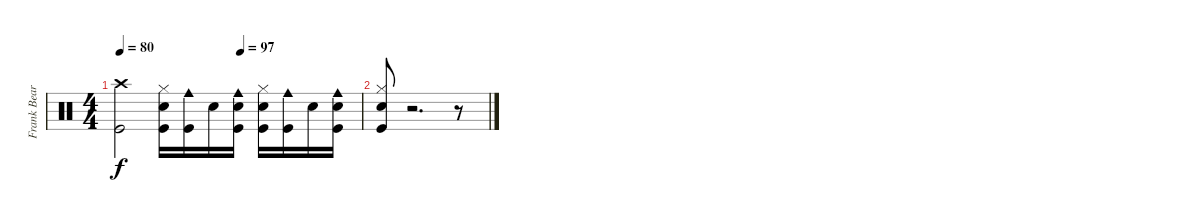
\track ("Frank Beard Drums" "Frank Bear") {instrument percussion}
\staff {score}
\articulation defaults
\ts (4 4)
\tempo 80
\tempo (97 0.5)
\clef neutral
\ks c
("Crash high (hit)"{t} "Kick (hit)"{t}).2{dy f} ("Hi-Hat (closed)" "Snare (hit) 2" "Kick (hit)").16 ("Cowbell medium (hit)" "Kick (hit)").16 "Snare (hit) 2".16 ("Cowbell medium (hit)" "Snare (hit) 2" "Kick (hit)").16 ("Hi-Hat (closed)" "Snare (hit) 2" "Kick (hit)").16 ("Cowbell medium (hit)" "Kick (hit)").16 "Snare (hit) 2".16 ("Cowbell medium (hit)" "Snare (hit) 2" "Kick (hit)").16 |
("Hi-Hat (closed)" "Snare (hit) 2" "Kick (hit)").8 r.2{d} r.8
